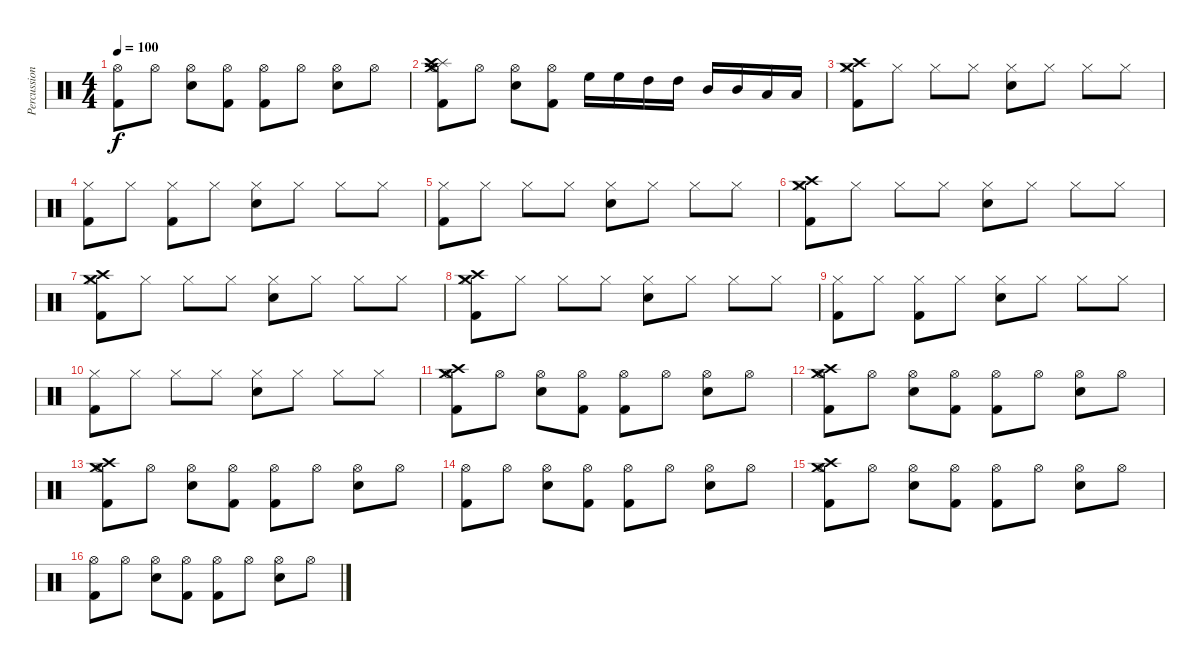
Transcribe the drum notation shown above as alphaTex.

\track ("Percussion" "Percussion") {instrument percussion}
\staff {score}
\articulation defaults
\ts (4 4)
\tempo 100
\clef neutral
\ks c
("Kick (hit) 2" "Hi-Hat (open)").8{dy f} "Hi-Hat (open)".8 ("Hi-Hat (open)" "Electric Snare (hit)").8 ("Hi-Hat (open)" "Kick (hit) 2").8 ("Hi-Hat (open)" "Kick (hit) 2").8 "Hi-Hat (open)".8 ("Hi-Hat (open)" "Electric Snare (hit)").8 "Hi-Hat (open)".8 |
("Splash (hit)" "Crash high (hit)" "Crash medium (hit)" "Hi-Hat (open)" "Kick (hit) 2").8 "Hi-Hat (open)".8 ("Hi-Hat (open)" "Electric Snare (hit)").8 ("Hi-Hat (open)" "Kick (hit) 2").8 "High Floor Tom (hit)".16 "High Floor Tom (hit)".16 "High Tom (hit)".16 "High Tom (hit)".16 "Mid Tom (hit)".16 "Mid Tom (hit)".16 "Low Tom (hit)".16 "Low Tom (hit)".16 |
("Hi-Hat (closed)" "Crash medium (hit)" "Crash high (hit)" "Kick (hit) 2").8 "Hi-Hat (closed)".8 "Hi-Hat (closed)".8 "Hi-Hat (closed)".8 ("Hi-Hat (closed)" "Electric Snare (hit)").8 "Hi-Hat (closed)".8 "Hi-Hat (closed)".8 "Hi-Hat (closed)".8 |
("Hi-Hat (closed)" "Kick (hit) 2").8 "Hi-Hat (closed)".8 ("Hi-Hat (closed)" "Kick (hit) 2").8 "Hi-Hat (closed)".8 ("Hi-Hat (closed)" "Electric Snare (hit)").8 "Hi-Hat (closed)".8 "Hi-Hat (closed)".8 "Hi-Hat (closed)".8 |
("Hi-Hat (closed)" "Kick (hit) 2").8 "Hi-Hat (closed)".8 "Hi-Hat (closed)".8 "Hi-Hat (closed)".8 ("Hi-Hat (closed)" "Electric Snare (hit)").8 "Hi-Hat (closed)".8 "Hi-Hat (closed)".8 "Hi-Hat (closed)".8 |
("Hi-Hat (closed)" "Crash medium (hit)" "Crash high (hit)" "Kick (hit) 2").8 "Hi-Hat (closed)".8 "Hi-Hat (closed)".8 "Hi-Hat (closed)".8 ("Hi-Hat (closed)" "Electric Snare (hit)").8 "Hi-Hat (closed)".8 "Hi-Hat (closed)".8 "Hi-Hat (closed)".8 |
("Hi-Hat (closed)" "Crash medium (hit)" "Crash high (hit)" "Kick (hit) 2").8 "Hi-Hat (closed)".8 "Hi-Hat (closed)".8 "Hi-Hat (closed)".8 ("Hi-Hat (closed)" "Electric Snare (hit)").8 "Hi-Hat (closed)".8 "Hi-Hat (closed)".8 "Hi-Hat (closed)".8 |
("Hi-Hat (closed)" "Crash medium (hit)" "Crash high (hit)" "Kick (hit) 2").8 "Hi-Hat (closed)".8 "Hi-Hat (closed)".8 "Hi-Hat (closed)".8 ("Hi-Hat (closed)" "Electric Snare (hit)").8 "Hi-Hat (closed)".8 "Hi-Hat (closed)".8 "Hi-Hat (closed)".8 |
("Hi-Hat (closed)" "Kick (hit) 2").8 "Hi-Hat (closed)".8 ("Hi-Hat (closed)" "Kick (hit) 2").8 "Hi-Hat (closed)".8 ("Hi-Hat (closed)" "Electric Snare (hit)").8 "Hi-Hat (closed)".8 "Hi-Hat (closed)".8 "Hi-Hat (closed)".8 |
("Hi-Hat (closed)" "Kick (hit) 2").8 "Hi-Hat (closed)".8 "Hi-Hat (closed)".8 "Hi-Hat (closed)".8 ("Hi-Hat (closed)" "Electric Snare (hit)").8 "Hi-Hat (closed)".8 "Hi-Hat (closed)".8 "Hi-Hat (closed)".8 |
("Crash high (hit)" "Crash medium (hit)" "Kick (hit) 2" "Hi-Hat (open)").8 "Hi-Hat (open)".8 ("Hi-Hat (open)" "Electric Snare (hit)").8 ("Hi-Hat (open)" "Kick (hit) 2").8 ("Hi-Hat (open)" "Kick (hit) 2").8 "Hi-Hat (open)".8 ("Hi-Hat (open)" "Electric Snare (hit)").8 "Hi-Hat (open)".8 |
("Crash high (hit)" "Crash medium (hit)" "Kick (hit) 2" "Hi-Hat (open)").8 "Hi-Hat (open)".8 ("Hi-Hat (open)" "Electric Snare (hit)").8 ("Hi-Hat (open)" "Kick (hit) 2").8 ("Hi-Hat (open)" "Kick (hit) 2").8 "Hi-Hat (open)".8 ("Hi-Hat (open)" "Electric Snare (hit)").8 "Hi-Hat (open)".8 |
("Crash high (hit)" "Crash medium (hit)" "Kick (hit) 2" "Hi-Hat (open)").8 "Hi-Hat (open)".8 ("Hi-Hat (open)" "Electric Snare (hit)").8 ("Hi-Hat (open)" "Kick (hit) 2").8 ("Hi-Hat (open)" "Kick (hit) 2").8 "Hi-Hat (open)".8 ("Hi-Hat (open)" "Electric Snare (hit)").8 "Hi-Hat (open)".8 |
("Kick (hit) 2" "Hi-Hat (open)").8 "Hi-Hat (open)".8 ("Hi-Hat (open)" "Electric Snare (hit)").8 ("Hi-Hat (open)" "Kick (hit) 2").8 ("Hi-Hat (open)" "Kick (hit) 2").8 "Hi-Hat (open)".8 ("Hi-Hat (open)" "Electric Snare (hit)").8 "Hi-Hat (open)".8 |
("Crash high (hit)" "Crash medium (hit)" "Kick (hit) 2" "Hi-Hat (open)").8 "Hi-Hat (open)".8 ("Hi-Hat (open)" "Electric Snare (hit)").8 ("Hi-Hat (open)" "Kick (hit) 2").8 ("Hi-Hat (open)" "Kick (hit) 2").8 "Hi-Hat (open)".8 ("Hi-Hat (open)" "Electric Snare (hit)").8 "Hi-Hat (open)".8 |
("Kick (hit) 2" "Hi-Hat (open)").8 "Hi-Hat (open)".8 ("Hi-Hat (open)" "Electric Snare (hit)").8 ("Hi-Hat (open)" "Kick (hit) 2").8 ("Hi-Hat (open)" "Kick (hit) 2").8 "Hi-Hat (open)".8 ("Hi-Hat (open)" "Electric Snare (hit)").8 "Hi-Hat (open)".8
